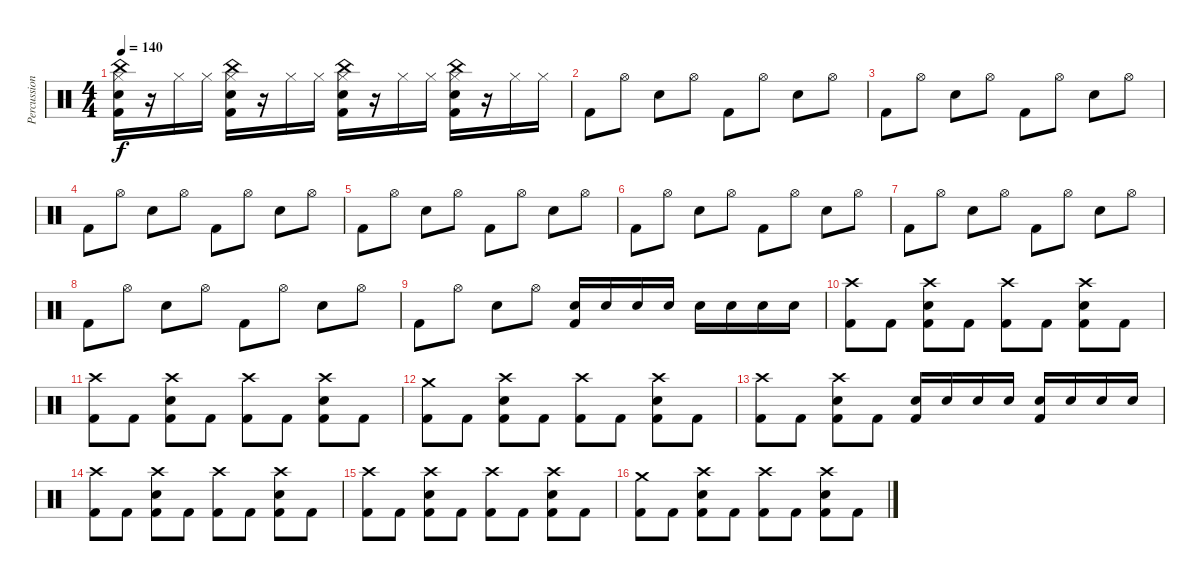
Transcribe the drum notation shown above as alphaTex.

\track ("Percussion" "Percussion") {instrument percussion}
\staff {score}
\articulation defaults
\ts (4 4)
\tempo 140
\clef neutral
\ks c
("China (hit)" "Hi-Hat (closed)" "Electric Snare (hit)" "Kick (hit) 2").16{dy f} r.16 "Hi-Hat (closed)".16 "Hi-Hat (closed)".16 ("China (hit)" "Hi-Hat (closed)" "Electric Snare (hit)" "Kick (hit) 2").16 r.16 "Hi-Hat (closed)".16 "Hi-Hat (closed)".16 ("China (hit)" "Hi-Hat (closed)" "Electric Snare (hit)" "Kick (hit) 2").16 r.16 "Hi-Hat (closed)".16 "Hi-Hat (closed)".16 ("China (hit)" "Hi-Hat (closed)" "Electric Snare (hit)" "Kick (hit) 2").16 r.16 "Hi-Hat (closed)".16 "Hi-Hat (closed)".16 |
"Kick (hit) 2".8 "Hi-Hat (open)".8 "Electric Snare (hit)".8 "Hi-Hat (open)".8 "Kick (hit) 2".8 "Hi-Hat (open)".8 "Electric Snare (hit)".8 "Hi-Hat (open)".8 |
"Kick (hit) 2".8 "Hi-Hat (open)".8 "Electric Snare (hit)".8 "Hi-Hat (open)".8 "Kick (hit) 2".8 "Hi-Hat (open)".8 "Electric Snare (hit)".8 "Hi-Hat (open)".8 |
"Kick (hit) 2".8 "Hi-Hat (open)".8 "Electric Snare (hit)".8 "Hi-Hat (open)".8 "Kick (hit) 2".8 "Hi-Hat (open)".8 "Electric Snare (hit)".8 "Hi-Hat (open)".8 |
"Kick (hit) 2".8 "Hi-Hat (open)".8 "Electric Snare (hit)".8 "Hi-Hat (open)".8 "Kick (hit) 2".8 "Hi-Hat (open)".8 "Electric Snare (hit)".8 "Hi-Hat (open)".8 |
"Kick (hit) 2".8 "Hi-Hat (open)".8 "Electric Snare (hit)".8 "Hi-Hat (open)".8 "Kick (hit) 2".8 "Hi-Hat (open)".8 "Electric Snare (hit)".8 "Hi-Hat (open)".8 |
"Kick (hit) 2".8 "Hi-Hat (open)".8 "Electric Snare (hit)".8 "Hi-Hat (open)".8 "Kick (hit) 2".8 "Hi-Hat (open)".8 "Electric Snare (hit)".8 "Hi-Hat (open)".8 |
"Kick (hit) 2".8 "Hi-Hat (open)".8 "Electric Snare (hit)".8 "Hi-Hat (open)".8 "Kick (hit) 2".8 "Hi-Hat (open)".8 "Electric Snare (hit)".8 "Hi-Hat (open)".8 |
"Kick (hit) 2".8 "Hi-Hat (open)".8 "Electric Snare (hit)".8 "Hi-Hat (open)".8 ("Electric Snare (hit)" "Kick (hit) 2").16 "Electric Snare (hit)".16 "Electric Snare (hit)".16 "Electric Snare (hit)".16 "Electric Snare (hit)".16 "Electric Snare (hit)".16 "Electric Snare (hit)".16 "Electric Snare (hit)".16 |
("Crash high (hit)" "Kick (hit) 2").8 "Kick (hit) 2".8 ("Crash high (hit)" "Electric Snare (hit)" "Kick (hit) 2").8 "Kick (hit) 2".8 ("Crash high (hit)" "Kick (hit) 2").8 "Kick (hit) 2".8 ("Crash high (hit)" "Electric Snare (hit)" "Kick (hit) 2").8 "Kick (hit) 2".8 |
("Crash high (hit)" "Kick (hit) 2").8 "Kick (hit) 2".8 ("Crash high (hit)" "Electric Snare (hit)" "Kick (hit) 2").8 "Kick (hit) 2".8 ("Crash high (hit)" "Kick (hit) 2").8 "Kick (hit) 2".8 ("Crash high (hit)" "Electric Snare (hit)" "Kick (hit) 2").8 "Kick (hit) 2".8 |
("Crash medium (hit)" "Kick (hit) 2").8 "Kick (hit) 2".8 ("Crash high (hit)" "Electric Snare (hit)" "Kick (hit) 2").8 "Kick (hit) 2".8 ("Crash high (hit)" "Kick (hit) 2").8 "Kick (hit) 2".8 ("Crash high (hit)" "Electric Snare (hit)" "Kick (hit) 2").8 "Kick (hit) 2".8 |
("Crash high (hit)" "Kick (hit) 2").8 "Kick (hit) 2".8 ("Crash high (hit)" "Electric Snare (hit)" "Kick (hit) 2").8 "Kick (hit) 2".8 ("Electric Snare (hit)" "Kick (hit) 2").16 "Electric Snare (hit)".16 "Electric Snare (hit)".16 "Electric Snare (hit)".16 ("Electric Snare (hit)" "Kick (hit) 2").16 "Electric Snare (hit)".16 "Electric Snare (hit)".16 "Electric Snare (hit)".16 |
("Crash high (hit)" "Kick (hit) 2").8 "Kick (hit) 2".8 ("Crash high (hit)" "Electric Snare (hit)" "Kick (hit) 2").8 "Kick (hit) 2".8 ("Crash high (hit)" "Kick (hit) 2").8 "Kick (hit) 2".8 ("Crash high (hit)" "Electric Snare (hit)" "Kick (hit) 2").8 "Kick (hit) 2".8 |
("Crash high (hit)" "Kick (hit) 2").8 "Kick (hit) 2".8 ("Crash high (hit)" "Electric Snare (hit)" "Kick (hit) 2").8 "Kick (hit) 2".8 ("Crash high (hit)" "Kick (hit) 2").8 "Kick (hit) 2".8 ("Crash high (hit)" "Electric Snare (hit)" "Kick (hit) 2").8 "Kick (hit) 2".8 |
("Crash medium (hit)" "Kick (hit) 2").8 "Kick (hit) 2".8 ("Crash high (hit)" "Electric Snare (hit)" "Kick (hit) 2").8 "Kick (hit) 2".8 ("Crash high (hit)" "Kick (hit) 2").8 "Kick (hit) 2".8 ("Crash high (hit)" "Electric Snare (hit)" "Kick (hit) 2").8 "Kick (hit) 2".8
